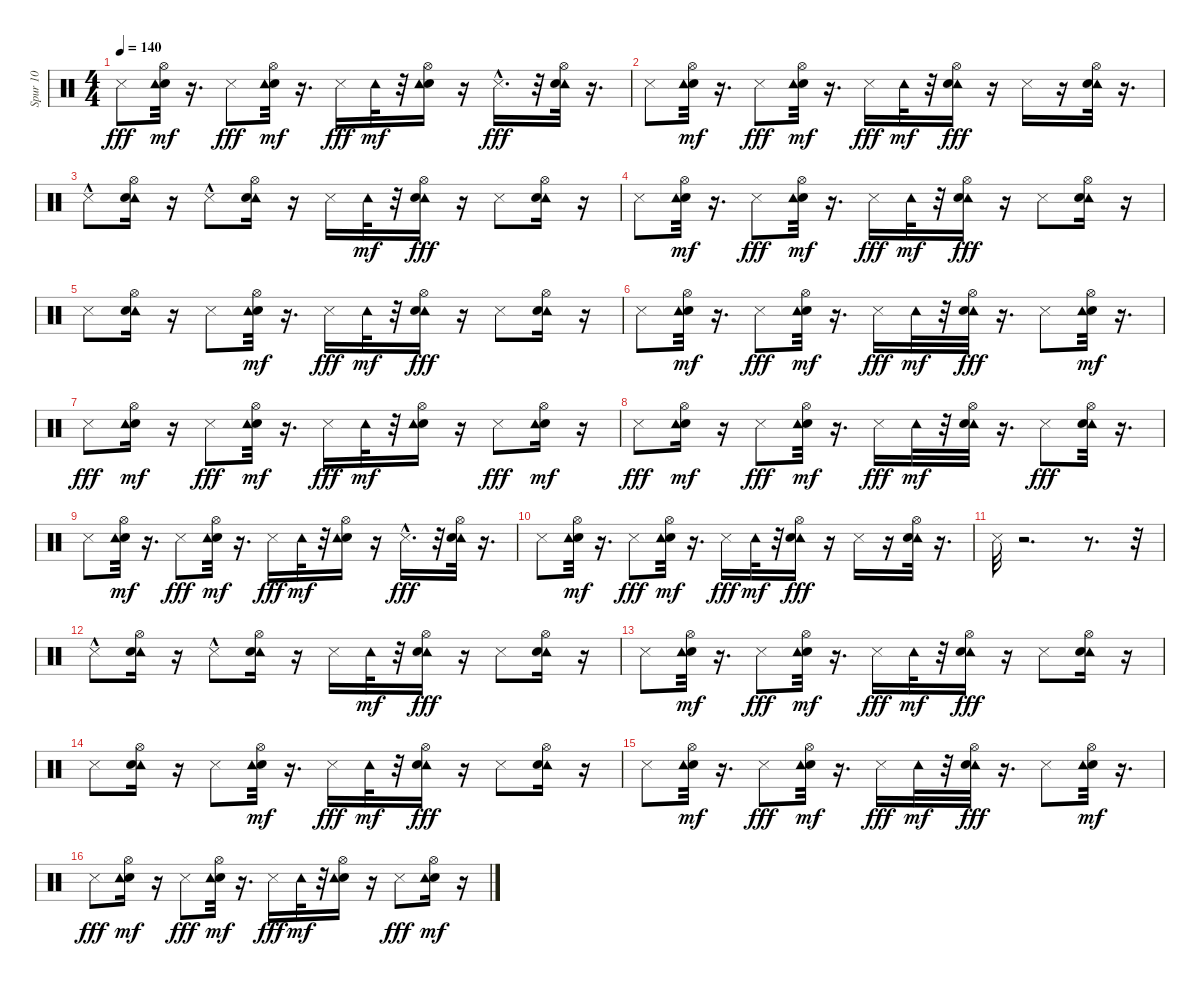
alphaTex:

\track ("Spur 10" "Spur 10") {instrument percussion}
\staff {score}
\articulation defaults
\ts (4 4)
\tempo 140
\clef neutral
\ks c "Metronome (hit)".8{dy fff}
("Hi-Hat (open)" "Snare (hit)" "Tambourine (hit)").32{dy mf} r.16{d} "Metronome (hit)".8{dy fff} ("Hi-Hat (open)" "Snare (hit)" "Tambourine (hit)").32{dy mf} r.16{d} "Metronome (hit)".16{dy fff} "Tambourine (hit)".32{dy mf} r.32 ("Hi-Hat (open)" "Snare (hit)" "Tambourine (hit)").16 r.16 "Metronome (hit)"{hac}.16{d dy fff} r.32 ("Tambourine (hit)" "Hi-Hat (open)" "Snare (hit)").32 r.16{d} |
"Metronome (hit)".8 ("Hi-Hat (open)" "Snare (hit)" "Tambourine (hit)").32{dy mf} r.16{d} "Metronome (hit)".8{dy fff} ("Hi-Hat (open)" "Snare (hit)" "Tambourine (hit)").32{dy mf} r.16{d} "Metronome (hit)".16{dy fff} "Tambourine (hit)".32{dy mf} r.32 ("Tambourine (hit)" "Hi-Hat (open)" "Snare (hit)").16{dy fff} r.16 "Metronome (hit)".16 r.16 ("Tambourine (hit)" "Hi-Hat (open)" "Snare (hit)").32 r.16{d} |
"Metronome (hit)"{hac}.8 ("Tambourine (hit)" "Hi-Hat (open)" "Snare (hit)").16 r.16 "Metronome (hit)"{hac}.8 ("Tambourine (hit)" "Hi-Hat (open)" "Snare (hit)").16 r.16 "Metronome (hit)".16 "Tambourine (hit)".32{dy mf} r.32 ("Tambourine (hit)" "Hi-Hat (open)" "Snare (hit)").16{dy fff} r.16 "Metronome (hit)".8 ("Tambourine (hit)" "Hi-Hat (open)" "Snare (hit)").16 r.16 |
"Metronome (hit)".8 ("Hi-Hat (open)" "Snare (hit)" "Tambourine (hit)").32{dy mf} r.16{d} "Metronome (hit)".8{dy fff} ("Hi-Hat (open)" "Snare (hit)" "Tambourine (hit)").32{dy mf} r.16{d} "Metronome (hit)".16{dy fff} "Tambourine (hit)".32{dy mf} r.32 ("Tambourine (hit)" "Hi-Hat (open)" "Snare (hit)").16{dy fff} r.16 "Metronome (hit)".8 ("Tambourine (hit)" "Hi-Hat (open)" "Snare (hit)").16 r.16 |
"Metronome (hit)".8 ("Tambourine (hit)" "Hi-Hat (open)" "Snare (hit)").16 r.16 "Metronome (hit)".8 ("Hi-Hat (open)" "Snare (hit)" "Tambourine (hit)").32{dy mf} r.16{d} "Metronome (hit)".16{dy fff} "Tambourine (hit)".32{dy mf} r.32 ("Tambourine (hit)" "Hi-Hat (open)" "Snare (hit)").16{dy fff} r.16 "Metronome (hit)".8 ("Tambourine (hit)" "Hi-Hat (open)" "Snare (hit)").16 r.16 |
"Metronome (hit)".8 ("Snare (hit)" "Hi-Hat (open)" "Tambourine (hit)").32{dy mf} r.16{d} "Metronome (hit)".8{dy fff} ("Hi-Hat (open)" "Snare (hit)" "Tambourine (hit)").32{dy mf} r.16{d} "Metronome (hit)".16{dy fff} "Tambourine (hit)".32{dy mf} r.32 ("Tambourine (hit)" "Hi-Hat (open)" "Snare (hit)").32{dy fff} r.16{d} "Metronome (hit)".8 ("Hi-Hat (open)" "Snare (hit)" "Tambourine (hit)").32{dy mf} r.16{d} |
"Metronome (hit)".8{dy fff} ("Hi-Hat (open)" "Snare (hit)" "Tambourine (hit)").16{dy mf} r.16 "Metronome (hit)".8{dy fff} ("Hi-Hat (open)" "Snare (hit)" "Tambourine (hit)").32{dy mf} r.16{d} "Metronome (hit)".16{dy fff} "Tambourine (hit)".32{dy mf} r.32 ("Hi-Hat (open)" "Snare (hit)" "Tambourine (hit)").16 r.16 "Metronome (hit)".8{dy fff} ("Snare (hit)" "Hi-Hat (open)" "Tambourine (hit)").16{dy mf} r.16 |
"Metronome (hit)".8{dy fff} ("Hi-Hat (open)" "Snare (hit)" "Tambourine (hit)").16{dy mf} r.16 "Metronome (hit)".8{dy fff} ("Hi-Hat (open)" "Snare (hit)" "Tambourine (hit)").32{dy mf} r.16{d} "Metronome (hit)".16{dy fff} "Tambourine (hit)".32{dy mf} r.32 ("Tambourine (hit)" "Snare (hit)" "Hi-Hat (open)").32 r.16{d} "Metronome (hit)".8{dy fff} ("Tambourine (hit)" "Hi-Hat (open)" "Snare (hit)").32 r.16{d} |
"Metronome (hit)".8 ("Hi-Hat (open)" "Snare (hit)" "Tambourine (hit)").32{dy mf} r.16{d} "Metronome (hit)".8{dy fff} ("Hi-Hat (open)" "Snare (hit)" "Tambourine (hit)").32{dy mf} r.16{d} "Metronome (hit)".16{dy fff} "Tambourine (hit)".32{dy mf} r.32 ("Hi-Hat (open)" "Snare (hit)" "Tambourine (hit)").16 r.16 "Metronome (hit)"{hac}.16{d dy fff} r.32 ("Tambourine (hit)" "Hi-Hat (open)" "Snare (hit)").32 r.16{d} |
"Metronome (hit)".8 ("Hi-Hat (open)" "Snare (hit)" "Tambourine (hit)").32{dy mf} r.16{d} "Metronome (hit)".8{dy fff} ("Hi-Hat (open)" "Snare (hit)" "Tambourine (hit)").32{dy mf} r.16{d} "Metronome (hit)".16{dy fff} "Tambourine (hit)".32{dy mf} r.32 ("Tambourine (hit)" "Hi-Hat (open)" "Snare (hit)").16{dy fff} r.16 "Metronome (hit)".16 r.16 ("Tambourine (hit)" "Hi-Hat (open)" "Snare (hit)").32 r.16{d} |
"Metronome (hit)".32 r.2{d} r.8{d} r.32 |
"Metronome (hit)"{hac}.8 ("Tambourine (hit)" "Hi-Hat (open)" "Snare (hit)").16 r.16 "Metronome (hit)"{hac}.8 ("Tambourine (hit)" "Hi-Hat (open)" "Snare (hit)").16 r.16 "Metronome (hit)".16 "Tambourine (hit)".32{dy mf} r.32 ("Tambourine (hit)" "Hi-Hat (open)" "Snare (hit)").16{dy fff} r.16 "Metronome (hit)".8 ("Tambourine (hit)" "Hi-Hat (open)" "Snare (hit)").16 r.16 |
"Metronome (hit)".8 ("Hi-Hat (open)" "Snare (hit)" "Tambourine (hit)").32{dy mf} r.16{d} "Metronome (hit)".8{dy fff} ("Hi-Hat (open)" "Snare (hit)" "Tambourine (hit)").32{dy mf} r.16{d} "Metronome (hit)".16{dy fff} "Tambourine (hit)".32{dy mf} r.32 ("Tambourine (hit)" "Hi-Hat (open)" "Snare (hit)").16{dy fff} r.16 "Metronome (hit)".8 ("Tambourine (hit)" "Hi-Hat (open)" "Snare (hit)").16 r.16 |
"Metronome (hit)".8 ("Tambourine (hit)" "Hi-Hat (open)" "Snare (hit)").16 r.16 "Metronome (hit)".8 ("Hi-Hat (open)" "Snare (hit)" "Tambourine (hit)").32{dy mf} r.16{d} "Metronome (hit)".16{dy fff} "Tambourine (hit)".32{dy mf} r.32 ("Tambourine (hit)" "Hi-Hat (open)" "Snare (hit)").16{dy fff} r.16 "Metronome (hit)".8 ("Tambourine (hit)" "Hi-Hat (open)" "Snare (hit)").16 r.16 |
"Metronome (hit)".8 ("Snare (hit)" "Hi-Hat (open)" "Tambourine (hit)").32{dy mf} r.16{d} "Metronome (hit)".8{dy fff} ("Hi-Hat (open)" "Snare (hit)" "Tambourine (hit)").32{dy mf} r.16{d} "Metronome (hit)".16{dy fff} "Tambourine (hit)".32{dy mf} r.32 ("Tambourine (hit)" "Hi-Hat (open)" "Snare (hit)").32{dy fff} r.16{d} "Metronome (hit)".8 ("Hi-Hat (open)" "Snare (hit)" "Tambourine (hit)").32{dy mf} r.16{d} |
"Metronome (hit)".8{dy fff} ("Hi-Hat (open)" "Snare (hit)" "Tambourine (hit)").16{dy mf} r.16 "Metronome (hit)".8{dy fff} ("Hi-Hat (open)" "Snare (hit)" "Tambourine (hit)").32{dy mf} r.16{d} "Metronome (hit)".16{dy fff} "Tambourine (hit)".32{dy mf} r.32 ("Hi-Hat (open)" "Snare (hit)" "Tambourine (hit)").16 r.16 "Metronome (hit)".8{dy fff} ("Snare (hit)" "Hi-Hat (open)" "Tambourine (hit)").16{dy mf} r.16
